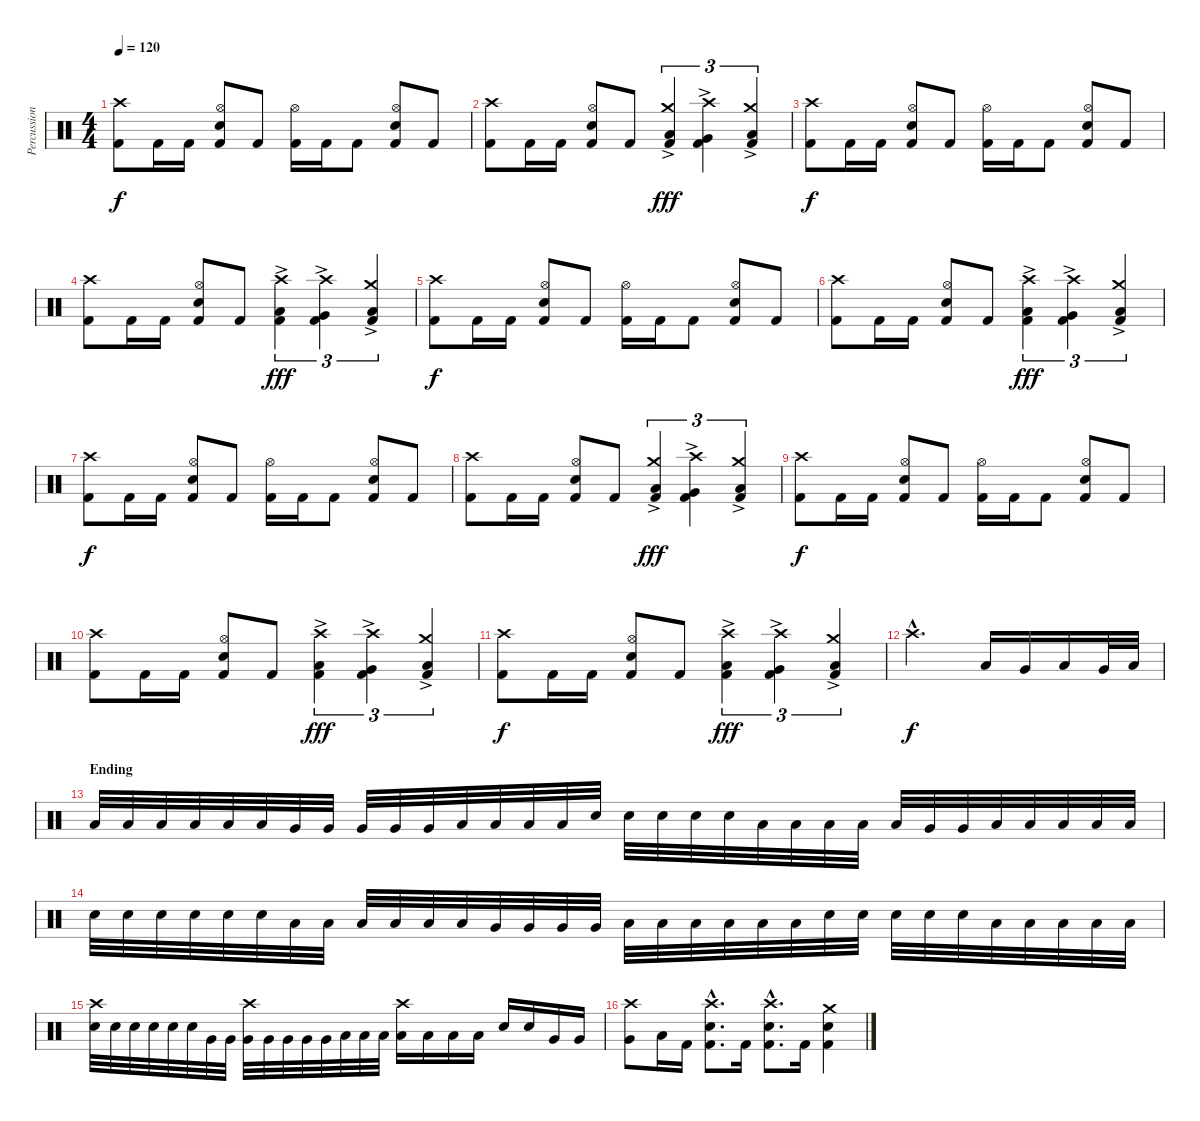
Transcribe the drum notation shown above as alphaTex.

\track ("Percussion" "Percussion") {instrument percussion}
\staff {score}
\articulation defaults
\ts (4 4)
\tempo 120
\clef neutral
\ks c
("Crash high (hit)" "Kick (hit) 2").8{dy f} "Kick (hit) 2".16 "Kick (hit) 2".16 ("Hi-Hat (open)" "Electric Snare (hit)" "Kick (hit) 2").8 "Kick (hit) 2".8 ("Hi-Hat (open)" "Kick (hit) 2").16 "Kick (hit) 2".16 "Kick (hit) 2".8 ("Hi-Hat (open)" "Electric Snare (hit)" "Kick (hit) 2").8 "Kick (hit) 2".8 |
("Crash high (hit)" "Kick (hit) 2").8 "Kick (hit) 2".16 "Kick (hit) 2".16 ("Hi-Hat (open)" "Electric Snare (hit)" "Kick (hit) 2").8 "Kick (hit) 2".8 ("Crash medium (hit)" "Low Tom (hit)"{ac} "Kick (hit) 2").4{tu (3 2) dy fff} ("Crash high (hit)" "Very Low Tom (hit)"{ac} "Kick (hit) 2").4{tu (3 2)} ("Crash medium (hit)" "Low Tom (hit)"{ac} "Kick (hit) 2").4{tu (3 2)} |
("Crash high (hit)" "Kick (hit) 2").8{dy f} "Kick (hit) 2".16 "Kick (hit) 2".16 ("Hi-Hat (open)" "Electric Snare (hit)" "Kick (hit) 2").8 "Kick (hit) 2".8 ("Hi-Hat (open)" "Kick (hit) 2").16 "Kick (hit) 2".16 "Kick (hit) 2".8 ("Hi-Hat (open)" "Electric Snare (hit)" "Kick (hit) 2").8 "Kick (hit) 2".8 |
("Crash high (hit)" "Kick (hit) 2").8 "Kick (hit) 2".16 "Kick (hit) 2".16 ("Hi-Hat (open)" "Electric Snare (hit)" "Kick (hit) 2").8 "Kick (hit) 2".8 ("Crash high (hit)" "Low Floor Tom (hit)"{ac} "Kick (hit) 2").4{tu (3 2) dy fff} ("Crash high (hit)" "Very Low Tom (hit)"{ac} "Kick (hit) 2").4{tu (3 2)} ("Crash medium (hit)" "Low Tom (hit)"{ac} "Kick (hit) 2").4{tu (3 2)} |
("Crash high (hit)" "Kick (hit) 2").8{dy f} "Kick (hit) 2".16 "Kick (hit) 2".16 ("Hi-Hat (open)" "Electric Snare (hit)" "Kick (hit) 2").8 "Kick (hit) 2".8 ("Hi-Hat (open)" "Kick (hit) 2").16 "Kick (hit) 2".16 "Kick (hit) 2".8 ("Hi-Hat (open)" "Electric Snare (hit)" "Kick (hit) 2").8 "Kick (hit) 2".8 |
("Crash high (hit)" "Kick (hit) 2").8 "Kick (hit) 2".16 "Kick (hit) 2".16 ("Hi-Hat (open)" "Electric Snare (hit)" "Kick (hit) 2").8 "Kick (hit) 2".8 ("Crash high (hit)" "Low Floor Tom (hit)"{ac} "Kick (hit) 2").4{tu (3 2) dy fff} ("Crash high (hit)" "Very Low Tom (hit)"{ac} "Kick (hit) 2").4{tu (3 2)} ("Crash medium (hit)" "Low Tom (hit)"{ac} "Kick (hit) 2").4{tu (3 2)} |
("Crash high (hit)" "Kick (hit) 2").8{dy f} "Kick (hit) 2".16 "Kick (hit) 2".16 ("Hi-Hat (open)" "Electric Snare (hit)" "Kick (hit) 2").8 "Kick (hit) 2".8 ("Hi-Hat (open)" "Kick (hit) 2").16 "Kick (hit) 2".16 "Kick (hit) 2".8 ("Hi-Hat (open)" "Electric Snare (hit)" "Kick (hit) 2").8 "Kick (hit) 2".8 |
("Crash high (hit)" "Kick (hit) 2").8 "Kick (hit) 2".16 "Kick (hit) 2".16 ("Hi-Hat (open)" "Electric Snare (hit)" "Kick (hit) 2").8 "Kick (hit) 2".8 ("Crash medium (hit)" "Low Tom (hit)"{ac} "Kick (hit) 2").4{tu (3 2) dy fff} ("Crash high (hit)" "Very Low Tom (hit)"{ac} "Kick (hit) 2").4{tu (3 2)} ("Crash medium (hit)" "Low Tom (hit)"{ac} "Kick (hit) 2").4{tu (3 2)} |
("Crash high (hit)" "Kick (hit) 2").8{dy f} "Kick (hit) 2".16 "Kick (hit) 2".16 ("Hi-Hat (open)" "Electric Snare (hit)" "Kick (hit) 2").8 "Kick (hit) 2".8 ("Hi-Hat (open)" "Kick (hit) 2").16 "Kick (hit) 2".16 "Kick (hit) 2".8 ("Hi-Hat (open)" "Electric Snare (hit)" "Kick (hit) 2").8 "Kick (hit) 2".8 |
("Crash high (hit)" "Kick (hit) 2").8 "Kick (hit) 2".16 "Kick (hit) 2".16 ("Hi-Hat (open)" "Electric Snare (hit)" "Kick (hit) 2").8 "Kick (hit) 2".8 ("Crash high (hit)" "Low Floor Tom (hit)"{ac} "Kick (hit) 2").4{tu (3 2) dy fff} ("Crash high (hit)" "Very Low Tom (hit)"{ac} "Kick (hit) 2").4{tu (3 2)} ("Crash medium (hit)" "Low Tom (hit)"{ac} "Kick (hit) 2").4{tu (3 2)} |
("Crash high (hit)" "Kick (hit) 2").8{dy f} "Kick (hit) 2".16 "Kick (hit) 2".16 ("Hi-Hat (open)" "Electric Snare (hit)" "Kick (hit) 2").8 "Kick (hit) 2".8 ("Crash high (hit)" "Low Floor Tom (hit)"{ac} "Kick (hit) 2").4{tu (3 2) dy fff} ("Crash high (hit)" "Very Low Tom (hit)"{ac} "Kick (hit) 2").4{tu (3 2)} ("Crash medium (hit)" "Low Tom (hit)"{ac} "Kick (hit) 2").4{tu (3 2)} |
"Crash high (hit)"{hac}.2{d dy f} "Low Tom (hit)".16 "Very Low Tom (hit)".16 "Low Floor Tom (hit)".16 "Very Low Tom (hit)".32 "Low Tom (hit)".32 |
\section ("" "Ending")
"Low Tom (hit)".32 "Low Tom (hit)".32 "Low Tom (hit)".32 "Low Tom (hit)".32 "Low Tom (hit)".32 "Low Tom (hit)".32 "Very Low Tom (hit)".32 "Very Low Tom (hit)".32 "Very Low Tom (hit)".32 "Very Low Tom (hit)".32 "Very Low Tom (hit)".32 "Low Floor Tom (hit)".32 "Low Floor Tom (hit)".32 "Low Floor Tom (hit)".32 "Low Floor Tom (hit)".32 "Electric Snare (hit)".32 "Electric Snare (hit)".32 "Electric Snare (hit)".32 "Electric Snare (hit)".32 "Electric Snare (hit)".32 "Low Tom (hit)".32 "Low Tom (hit)".32 "Low Tom (hit)".32 "Low Tom (hit)".32 "Low Tom (hit)".32 "Very Low Tom (hit)".32 "Very Low Tom (hit)".32 "Low Tom (hit)".32 "Low Tom (hit)".32 "Low Tom (hit)".32 "Low Tom (hit)".32 "Low Tom (hit)".32 |
"Electric Snare (hit)".32 "Electric Snare (hit)".32 "Electric Snare (hit)".32 "Electric Snare (hit)".32 "Electric Snare (hit)".32 "Electric Snare (hit)".32 "Low Tom (hit)".32 "Low Tom (hit)".32 "Low Floor Tom (hit)".32 "Low Floor Tom (hit)".32 "Low Floor Tom (hit)".32 "Low Floor Tom (hit)".32 "Very Low Tom (hit)".32 "Very Low Tom (hit)".32 "Very Low Tom (hit)".32 "Very Low Tom (hit)".32 "Low Tom (hit)".32 "Low Tom (hit)".32 "Low Tom (hit)".32 "Low Tom (hit)".32 "Low Tom (hit)".32 "Low Tom (hit)".32 "Electric Snare (hit)".32 "Electric Snare (hit)".32 "Electric Snare (hit)".32 "Electric Snare (hit)".32 "Electric Snare (hit)".32 "Low Tom (hit)".32 "Low Tom (hit)".32 "Low Tom (hit)".32 "Low Tom (hit)".32 "Low Tom (hit)".32 |
("Crash high (hit)" "Electric Snare (hit)").32 "Electric Snare (hit)".32 "Electric Snare (hit)".32 "Electric Snare (hit)".32 "Electric Snare (hit)".32 "Electric Snare (hit)".32 "Very Low Tom (hit)".32 "Very Low Tom (hit)".32 ("Crash high (hit)" "Very Low Tom (hit)").32 "Very Low Tom (hit)".32 "Very Low Tom (hit)".32 "Very Low Tom (hit)".32 "Very Low Tom (hit)".32 "Low Floor Tom (hit)".32 "Low Floor Tom (hit)".32 "Low Floor Tom (hit)".32 ("Crash high (hit)" "Low Floor Tom (hit)").16 "Low Floor Tom (hit)".16 "Low Floor Tom (hit)".16 "Low Floor Tom (hit)".16 "Electric Snare (hit)".16 "Electric Snare (hit)".16 "Very Low Tom (hit)".16 "Very Low Tom (hit)".16 |
("Crash high (hit)" "Very Low Tom (hit)").8 "Low Floor Tom (hit)".16 "Kick (hit) 2".16 ("Crash high (hit)"{hac} "Electric Snare (hit)"{hac} "Kick (hit) 2"{hac}).8{d} "Kick (hit) 2".16 ("Crash high (hit)"{hac} "Electric Snare (hit)"{hac} "Kick (hit) 2"{hac}).8{d} "Kick (hit) 2".16 ("Crash medium (hit)" "Electric Snare (hit)" "Kick (hit) 2").4
